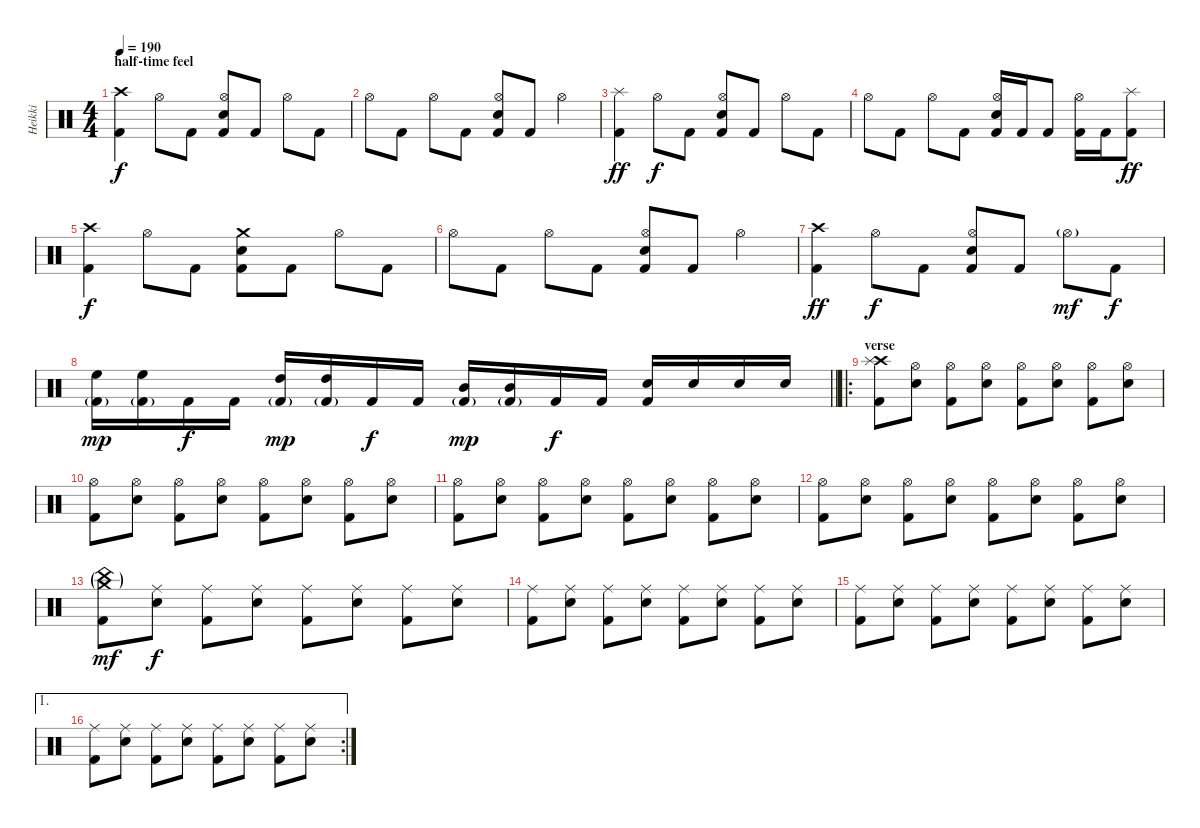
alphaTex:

\track ("Heikki" "Heikki") {instrument percussion}
\staff {score}
\articulation defaults
\ts (4 4)
\section ("" "half-time feel")
\tempo 190
\clef neutral
\ks c
("Crash high (hit)" "Kick (hit) 2").4{dy f} "Hi-Hat (open)".8 "Kick (hit) 2".8 ("Hi-Hat (open)" "Electric Snare (hit)" "Kick (hit) 2").8 "Kick (hit) 2".8 "Hi-Hat (open)".8 "Kick (hit) 2".8 |
"Hi-Hat (open)".8 "Kick (hit) 2".8 "Hi-Hat (open)".8 "Kick (hit) 2".8 ("Hi-Hat (open)" "Electric Snare (hit)" "Kick (hit) 2").8 "Kick (hit) 2".8 "Hi-Hat (open)".4 |
("Splash (hit)" "Kick (hit) 2").4{dy ff} "Hi-Hat (open)".8{dy f} "Kick (hit) 2".8 ("Hi-Hat (open)" "Electric Snare (hit)" "Kick (hit) 2").8 "Kick (hit) 2".8 "Hi-Hat (open)".8 "Kick (hit) 2".8 |
"Hi-Hat (open)".8 "Kick (hit) 2".8 "Hi-Hat (open)".8 "Kick (hit) 2".8 ("Hi-Hat (open)" "Electric Snare (hit)" "Kick (hit) 2").16 "Kick (hit) 2".16 "Kick (hit) 2".8 ("Hi-Hat (open)" "Kick (hit) 2").16 "Kick (hit) 2".16 ("Splash (hit)" "Kick (hit) 2").8{dy ff} |
("Crash high (hit)" "Kick (hit) 2").4{dy f} "Hi-Hat (open)".8 "Kick (hit) 2".8 ("Crash medium (hit)" "Electric Snare (hit)" "Kick (hit) 2").8 "Kick (hit) 2".8 "Hi-Hat (open)".8 "Kick (hit) 2".8 |
"Hi-Hat (open)".8 "Kick (hit) 2".8 "Hi-Hat (open)".8 "Kick (hit) 2".8 ("Hi-Hat (open)" "Electric Snare (hit)" "Kick (hit) 2").8 "Kick (hit) 2".8 "Hi-Hat (open)".4 |
("Crash high (hit)" "Kick (hit) 2").4{dy ff} "Hi-Hat (open)".8{dy f} "Kick (hit) 2".8 ("Hi-Hat (open)" "Electric Snare (hit)" "Kick (hit) 2").8 "Kick (hit) 2".8 "Hi-Hat (open)"{g}.8{dy mf} "Kick (hit) 2".8{dy f} |
\barLineRight lightlight
("High Floor Tom (hit)" "Kick (hit) 2"{g}).16{dy mp} ("High Floor Tom (hit)" "Kick (hit) 2"{g}).16 "Kick (hit) 2".16{dy f} "Kick (hit) 2".16 ("High Tom (hit)" "Kick (hit) 2"{g}).16{dy mp} ("High Tom (hit)" "Kick (hit) 2"{g}).16 "Kick (hit) 2".16{dy f} "Kick (hit) 2".16 ("Mid Tom (hit)" "Kick (hit) 2"{g}).16{dy mp} ("Mid Tom (hit)" "Kick (hit) 2"{g}).16 "Kick (hit) 2".16{dy f} "Kick (hit) 2".16 ("Electric Snare (hit)" "Kick (hit) 2").16 "Electric Snare (hit)".16 "Electric Snare (hit)".16 "Electric Snare (hit)".16 |
\ro
\section ("" "verse")
("Crash high (hit)" "Splash (hit)" "Kick (hit) 2").8 ("Hi-Hat (open)" "Electric Snare (hit)").8 ("Hi-Hat (open)" "Kick (hit) 2").8 ("Hi-Hat (open)" "Electric Snare (hit)").8 ("Hi-Hat (open)" "Kick (hit) 2").8 ("Hi-Hat (open)" "Electric Snare (hit)").8 ("Hi-Hat (open)" "Kick (hit) 2").8 ("Hi-Hat (open)" "Electric Snare (hit)").8 |
("Hi-Hat (open)" "Kick (hit) 2").8 ("Hi-Hat (open)" "Electric Snare (hit)").8 ("Hi-Hat (open)" "Kick (hit) 2").8 ("Hi-Hat (open)" "Electric Snare (hit)").8 ("Hi-Hat (open)" "Kick (hit) 2").8 ("Hi-Hat (open)" "Electric Snare (hit)").8 ("Hi-Hat (open)" "Kick (hit) 2").8 ("Hi-Hat (open)" "Electric Snare (hit)").8 |
("Hi-Hat (open)" "Kick (hit) 2").8 ("Hi-Hat (open)" "Electric Snare (hit)").8 ("Hi-Hat (open)" "Kick (hit) 2").8 ("Hi-Hat (open)" "Electric Snare (hit)").8 ("Hi-Hat (open)" "Kick (hit) 2").8 ("Hi-Hat (open)" "Electric Snare (hit)").8 ("Hi-Hat (open)" "Kick (hit) 2").8 ("Hi-Hat (open)" "Electric Snare (hit)").8 |
("Hi-Hat (open)" "Kick (hit) 2").8 ("Hi-Hat (open)" "Electric Snare (hit)").8 ("Hi-Hat (open)" "Kick (hit) 2").8 ("Hi-Hat (open)" "Electric Snare (hit)").8 ("Hi-Hat (open)" "Kick (hit) 2").8 ("Hi-Hat (open)" "Electric Snare (hit)").8 ("Hi-Hat (open)" "Kick (hit) 2").8 ("Hi-Hat (open)" "Electric Snare (hit)").8 |
("Crash medium (hit)"{g} "China (hit)"{g} "Kick (hit) 2").8{dy mf} ("Ride (middle)" "Electric Snare (hit)").8{dy f} ("Ride (middle)" "Kick (hit) 2").8 ("Ride (middle)" "Electric Snare (hit)").8 ("Ride (middle)" "Kick (hit) 2").8 ("Ride (middle)" "Electric Snare (hit)").8 ("Ride (middle)" "Kick (hit) 2").8 ("Ride (middle)" "Electric Snare (hit)").8 |
("Ride (middle)" "Kick (hit) 2").8 ("Ride (middle)" "Electric Snare (hit)").8 ("Ride (middle)" "Kick (hit) 2").8 ("Ride (middle)" "Electric Snare (hit)").8 ("Ride (middle)" "Kick (hit) 2").8 ("Ride (middle)" "Electric Snare (hit)").8 ("Ride (middle)" "Kick (hit) 2").8 ("Ride (middle)" "Electric Snare (hit)").8 |
("Ride (middle)" "Kick (hit) 2").8 ("Ride (middle)" "Electric Snare (hit)").8 ("Ride (middle)" "Kick (hit) 2").8 ("Ride (middle)" "Electric Snare (hit)").8 ("Ride (middle)" "Kick (hit) 2").8 ("Ride (middle)" "Electric Snare (hit)").8 ("Ride (middle)" "Kick (hit) 2").8 ("Ride (middle)" "Electric Snare (hit)").8 |
\ae 1
\rc 2
("Ride (middle)" "Kick (hit) 2").8 ("Ride (middle)" "Electric Snare (hit)").8 ("Ride (middle)" "Kick (hit) 2").8 ("Ride (middle)" "Electric Snare (hit)").8 ("Ride (middle)" "Kick (hit) 2").8 ("Ride (middle)" "Electric Snare (hit)").8 ("Ride (middle)" "Kick (hit) 2").8 ("Ride (middle)" "Electric Snare (hit)").8
